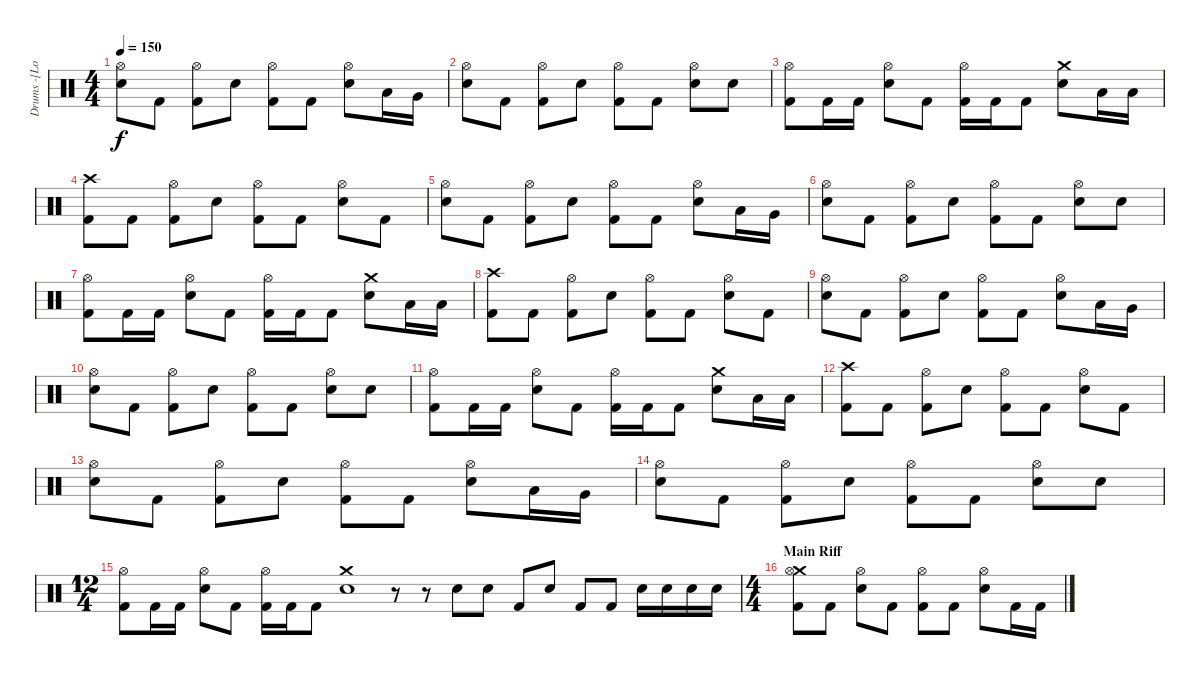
\track ("Drums -[Lorenz]-" "Drums -[Lo") {instrument percussion}
\staff {score}
\articulation defaults
\ts (4 4)
\tempo 150
\clef neutral
\ks c
("Hi-Hat (open)" "Electric Snare (hit)").8{dy f} "Kick (hit) 2".8 ("Hi-Hat (open)" "Kick (hit) 2").8 "Electric Snare (hit)".8 ("Hi-Hat (open)" "Kick (hit) 2").8 "Kick (hit) 2".8 ("Hi-Hat (open)" "Electric Snare (hit)").8 "Low Tom (hit)".16 "Very Low Tom (hit)".16 |
("Hi-Hat (open)" "Electric Snare (hit)").8 "Kick (hit) 2".8 ("Hi-Hat (open)" "Kick (hit) 2").8 "Electric Snare (hit)".8 ("Hi-Hat (open)" "Kick (hit) 2").8 "Kick (hit) 2".8 ("Hi-Hat (open)" "Electric Snare (hit)").8 "Electric Snare (hit)".8 |
("Hi-Hat (open)" "Kick (hit) 2").8 "Kick (hit) 2".16 "Kick (hit) 2".16 ("Hi-Hat (open)" "Electric Snare (hit)").8 "Kick (hit) 2".8 ("Hi-Hat (open)" "Kick (hit) 2").16 "Kick (hit) 2".16 "Kick (hit) 2".8 ("Crash medium (hit)" "Electric Snare (hit)").8 "Low Tom (hit)".16 "Low Tom (hit)".16 |
("Crash high (hit)" "Kick (hit) 2").8 "Kick (hit) 2".8 ("Hi-Hat (open)" "Kick (hit) 2").8 "Electric Snare (hit)".8 ("Hi-Hat (open)" "Kick (hit) 2").8 "Kick (hit) 2".8 ("Hi-Hat (open)" "Electric Snare (hit)").8 "Kick (hit) 2".8 |
("Hi-Hat (open)" "Electric Snare (hit)").8 "Kick (hit) 2".8 ("Hi-Hat (open)" "Kick (hit) 2").8 "Electric Snare (hit)".8 ("Hi-Hat (open)" "Kick (hit) 2").8 "Kick (hit) 2".8 ("Hi-Hat (open)" "Electric Snare (hit)").8 "Low Tom (hit)".16 "Very Low Tom (hit)".16 |
("Hi-Hat (open)" "Electric Snare (hit)").8 "Kick (hit) 2".8 ("Hi-Hat (open)" "Kick (hit) 2").8 "Electric Snare (hit)".8 ("Hi-Hat (open)" "Kick (hit) 2").8 "Kick (hit) 2".8 ("Hi-Hat (open)" "Electric Snare (hit)").8 "Electric Snare (hit)".8 |
("Hi-Hat (open)" "Kick (hit) 2").8 "Kick (hit) 2".16 "Kick (hit) 2".16 ("Hi-Hat (open)" "Electric Snare (hit)").8 "Kick (hit) 2".8 ("Hi-Hat (open)" "Kick (hit) 2").16 "Kick (hit) 2".16 "Kick (hit) 2".8 ("Crash medium (hit)" "Electric Snare (hit)").8 "Low Tom (hit)".16 "Low Tom (hit)".16 |
("Crash high (hit)" "Kick (hit) 2").8 "Kick (hit) 2".8 ("Hi-Hat (open)" "Kick (hit) 2").8 "Electric Snare (hit)".8 ("Hi-Hat (open)" "Kick (hit) 2").8 "Kick (hit) 2".8 ("Hi-Hat (open)" "Electric Snare (hit)").8 "Kick (hit) 2".8 |
("Hi-Hat (open)" "Electric Snare (hit)").8 "Kick (hit) 2".8 ("Hi-Hat (open)" "Kick (hit) 2").8 "Electric Snare (hit)".8 ("Hi-Hat (open)" "Kick (hit) 2").8 "Kick (hit) 2".8 ("Hi-Hat (open)" "Electric Snare (hit)").8 "Low Tom (hit)".16 "Very Low Tom (hit)".16 |
("Hi-Hat (open)" "Electric Snare (hit)").8 "Kick (hit) 2".8 ("Hi-Hat (open)" "Kick (hit) 2").8 "Electric Snare (hit)".8 ("Hi-Hat (open)" "Kick (hit) 2").8 "Kick (hit) 2".8 ("Hi-Hat (open)" "Electric Snare (hit)").8 "Electric Snare (hit)".8 |
("Hi-Hat (open)" "Kick (hit) 2").8 "Kick (hit) 2".16 "Kick (hit) 2".16 ("Hi-Hat (open)" "Electric Snare (hit)").8 "Kick (hit) 2".8 ("Hi-Hat (open)" "Kick (hit) 2").16 "Kick (hit) 2".16 "Kick (hit) 2".8 ("Crash medium (hit)" "Electric Snare (hit)").8 "Low Tom (hit)".16 "Low Tom (hit)".16 |
("Crash high (hit)" "Kick (hit) 2").8 "Kick (hit) 2".8 ("Hi-Hat (open)" "Kick (hit) 2").8 "Electric Snare (hit)".8 ("Hi-Hat (open)" "Kick (hit) 2").8 "Kick (hit) 2".8 ("Hi-Hat (open)" "Electric Snare (hit)").8 "Kick (hit) 2".8 |
("Hi-Hat (open)" "Electric Snare (hit)").8 "Kick (hit) 2".8 ("Hi-Hat (open)" "Kick (hit) 2").8 "Electric Snare (hit)".8 ("Hi-Hat (open)" "Kick (hit) 2").8 "Kick (hit) 2".8 ("Hi-Hat (open)" "Electric Snare (hit)").8 "Low Tom (hit)".16 "Very Low Tom (hit)".16 |
("Hi-Hat (open)" "Electric Snare (hit)").8 "Kick (hit) 2".8 ("Hi-Hat (open)" "Kick (hit) 2").8 "Electric Snare (hit)".8 ("Hi-Hat (open)" "Kick (hit) 2").8 "Kick (hit) 2".8 ("Hi-Hat (open)" "Electric Snare (hit)").8 "Electric Snare (hit)".8 |
\ts (12 4)
("Hi-Hat (open)" "Kick (hit) 2").8 "Kick (hit) 2".16 "Kick (hit) 2".16 ("Hi-Hat (open)" "Electric Snare (hit)").8 "Kick (hit) 2".8 ("Hi-Hat (open)" "Kick (hit) 2").16 "Kick (hit) 2".16 "Kick (hit) 2".8 ("Crash medium (hit)" "Electric Snare (hit)").1 r.8 r.8 "Electric Snare (hit)".8 "Electric Snare (hit)".8 "Kick (hit) 2".8 "Electric Snare (hit)".8 "Kick (hit) 2".8 "Kick (hit) 2".8 "Electric Snare (hit)".16 "Electric Snare (hit)".16 "Electric Snare (hit)".16 "Electric Snare (hit)".16 |
\ts (4 4)
\section ("" "Main Riff")
("Crash medium (hit)" "Hi-Hat (open)" "Kick (hit) 2").8 "Kick (hit) 2".8 ("Hi-Hat (open)" "Electric Snare (hit)").8 "Kick (hit) 2".8 ("Hi-Hat (open)" "Kick (hit) 2").8 "Kick (hit) 2".8 ("Hi-Hat (open)" "Electric Snare (hit)").8 "Kick (hit) 2".16 "Kick (hit) 2".16
